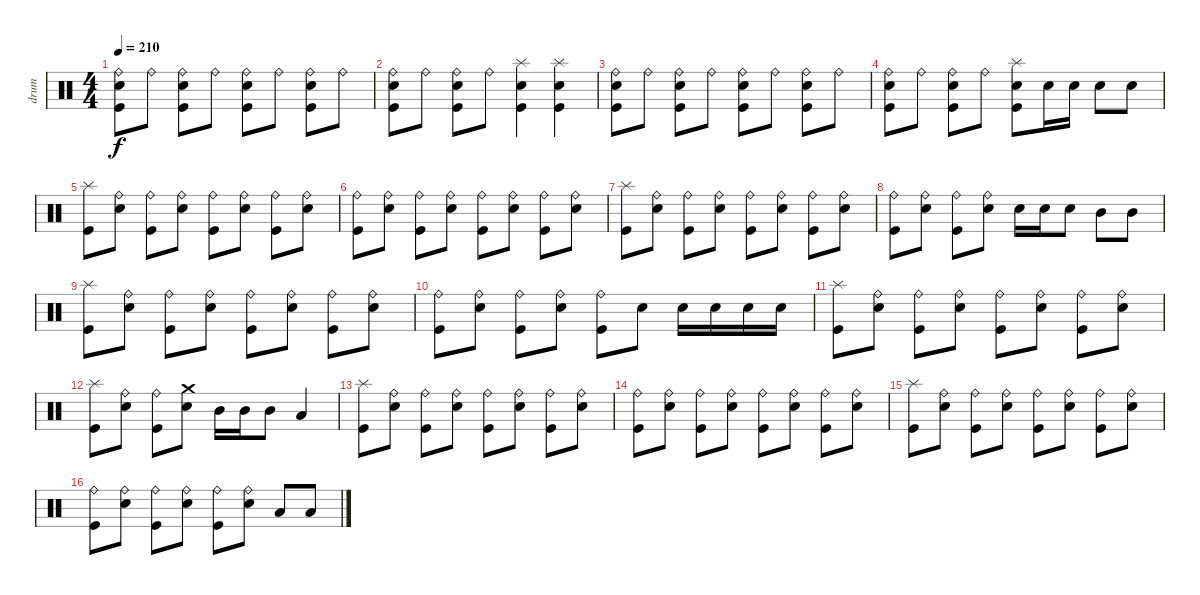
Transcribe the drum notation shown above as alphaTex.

\track ("drum" "drum") {instrument percussion}
\staff {score}
\articulation defaults
\ts (4 4)
\tempo 210
\clef neutral
\ks c
("Kick (hit)" "Electric Snare (hit)" "Ride (bell)").8{dy f} "Ride (bell)".8 ("Kick (hit)" "Electric Snare (hit)" "Ride (bell)").8 "Ride (bell)".8 ("Kick (hit)" "Electric Snare (hit)" "Ride (bell)").8 "Ride (bell)".8 ("Kick (hit)" "Electric Snare (hit)" "Ride (bell)").8 "Ride (bell)".8 |
("Kick (hit)" "Electric Snare (hit)" "Ride (bell)").8 "Ride (bell)".8 ("Kick (hit)" "Electric Snare (hit)" "Ride (bell)").8 "Ride (bell)".8 ("Kick (hit)" "Electric Snare (hit)" "Splash (hit)").4 ("Kick (hit)" "Electric Snare (hit)" "Splash (hit)").4 |
("Kick (hit)" "Electric Snare (hit)" "Ride (bell)").8 "Ride (bell)".8 ("Kick (hit)" "Electric Snare (hit)" "Ride (bell)").8 "Ride (bell)".8 ("Kick (hit)" "Electric Snare (hit)" "Ride (bell)").8 "Ride (bell)".8 ("Kick (hit)" "Electric Snare (hit)" "Ride (bell)").8 "Ride (bell)".8 |
("Kick (hit)" "Electric Snare (hit)" "Ride (bell)").8 "Ride (bell)".8 ("Kick (hit)" "Electric Snare (hit)" "Ride (bell)").8 "Ride (bell)".8 ("Kick (hit)" "Electric Snare (hit)" "Splash (hit)").8 "Electric Snare (hit)".16 "Electric Snare (hit)".16 "Electric Snare (hit)".8 "Electric Snare (hit)".8 |
("Kick (hit)" "Splash (hit)").8 ("Electric Snare (hit)" "Ride (bell)").8 ("Kick (hit)" "Ride (bell)").8 ("Electric Snare (hit)" "Ride (bell)").8 ("Kick (hit)" "Ride (bell)").8 ("Electric Snare (hit)" "Ride (bell)").8 ("Kick (hit)" "Ride (bell)").8 ("Electric Snare (hit)" "Ride (bell)").8 |
("Kick (hit)" "Ride (bell)").8 ("Electric Snare (hit)" "Ride (bell)").8 ("Kick (hit)" "Ride (bell)").8 ("Electric Snare (hit)" "Ride (bell)").8 ("Kick (hit)" "Ride (bell)").8 ("Electric Snare (hit)" "Ride (bell)").8 ("Kick (hit)" "Ride (bell)").8 ("Electric Snare (hit)" "Ride (bell)").8 |
("Kick (hit)" "Splash (hit)").8 ("Electric Snare (hit)" "Ride (bell)").8 ("Kick (hit)" "Ride (bell)").8 ("Electric Snare (hit)" "Ride (bell)").8 ("Kick (hit)" "Ride (bell)").8 ("Electric Snare (hit)" "Ride (bell)").8 ("Kick (hit)" "Ride (bell)").8 ("Electric Snare (hit)" "Ride (bell)").8 |
("Kick (hit)" "Ride (bell)").8 ("Electric Snare (hit)" "Ride (bell)").8 ("Kick (hit)" "Ride (bell)").8 ("Electric Snare (hit)" "Ride (bell)").8 "Electric Snare (hit)".16 "Electric Snare (hit)".16 "Electric Snare (hit)".8 "Mid Tom (hit)".8 "Mid Tom (hit)".8 |
("Kick (hit)" "Splash (hit)").8 ("Electric Snare (hit)" "Ride (bell)").8 ("Kick (hit)" "Ride (bell)").8 ("Electric Snare (hit)" "Ride (bell)").8 ("Kick (hit)" "Ride (bell)").8 ("Electric Snare (hit)" "Ride (bell)").8 ("Kick (hit)" "Ride (bell)").8 ("Electric Snare (hit)" "Ride (bell)").8 |
("Kick (hit)" "Ride (bell)").8 ("Electric Snare (hit)" "Ride (bell)").8 ("Kick (hit)" "Ride (bell)").8 ("Electric Snare (hit)" "Ride (bell)").8 ("Kick (hit)" "Ride (bell)").8 "Electric Snare (hit)".8 "Electric Snare (hit)".16 "Electric Snare (hit)".16 "Electric Snare (hit)".16 "Electric Snare (hit)".16 |
("Kick (hit)" "Splash (hit)").8 ("Electric Snare (hit)" "Ride (bell)").8 ("Kick (hit)" "Ride (bell)").8 ("Electric Snare (hit)" "Ride (bell)").8 ("Kick (hit)" "Ride (bell)").8 ("Electric Snare (hit)" "Ride (bell)").8 ("Kick (hit)" "Ride (bell)").8 ("Electric Snare (hit)" "Ride (bell)").8 |
("Kick (hit)" "Splash (hit)").8 ("Electric Snare (hit)" "Ride (bell)").8 ("Kick (hit)" "Ride (bell)").8 ("Electric Snare (hit)" "Crash medium (hit)").8 "Mid Tom (hit)".16 "Mid Tom (hit)".16 "Mid Tom (hit)".8 "Low Tom (hit)".4 |
("Kick (hit)" "Splash (hit)").8 ("Electric Snare (hit)" "Ride (bell)").8 ("Kick (hit)" "Ride (bell)").8 ("Electric Snare (hit)" "Ride (bell)").8 ("Kick (hit)" "Ride (bell)").8 ("Electric Snare (hit)" "Ride (bell)").8 ("Kick (hit)" "Ride (bell)").8 ("Electric Snare (hit)" "Ride (bell)").8 |
("Kick (hit)" "Ride (bell)").8 ("Electric Snare (hit)" "Ride (bell)").8 ("Kick (hit)" "Ride (bell)").8 ("Electric Snare (hit)" "Ride (bell)").8 ("Kick (hit)" "Ride (bell)").8 ("Electric Snare (hit)" "Ride (bell)").8 ("Kick (hit)" "Ride (bell)").8 ("Electric Snare (hit)" "Ride (bell)").8 |
("Kick (hit)" "Splash (hit)").8 ("Electric Snare (hit)" "Ride (bell)").8 ("Kick (hit)" "Ride (bell)").8 ("Electric Snare (hit)" "Ride (bell)").8 ("Kick (hit)" "Ride (bell)").8 ("Electric Snare (hit)" "Ride (bell)").8 ("Kick (hit)" "Ride (bell)").8 ("Electric Snare (hit)" "Ride (bell)").8 |
("Kick (hit)" "Ride (bell)").8 ("Electric Snare (hit)" "Ride (bell)").8 ("Kick (hit)" "Ride (bell)").8 ("Electric Snare (hit)" "Ride (bell)").8 ("Kick (hit)" "Ride (bell)").8 ("Electric Snare (hit)" "Ride (bell)").8 "Low Tom (hit)".8 "Low Tom (hit)".8
